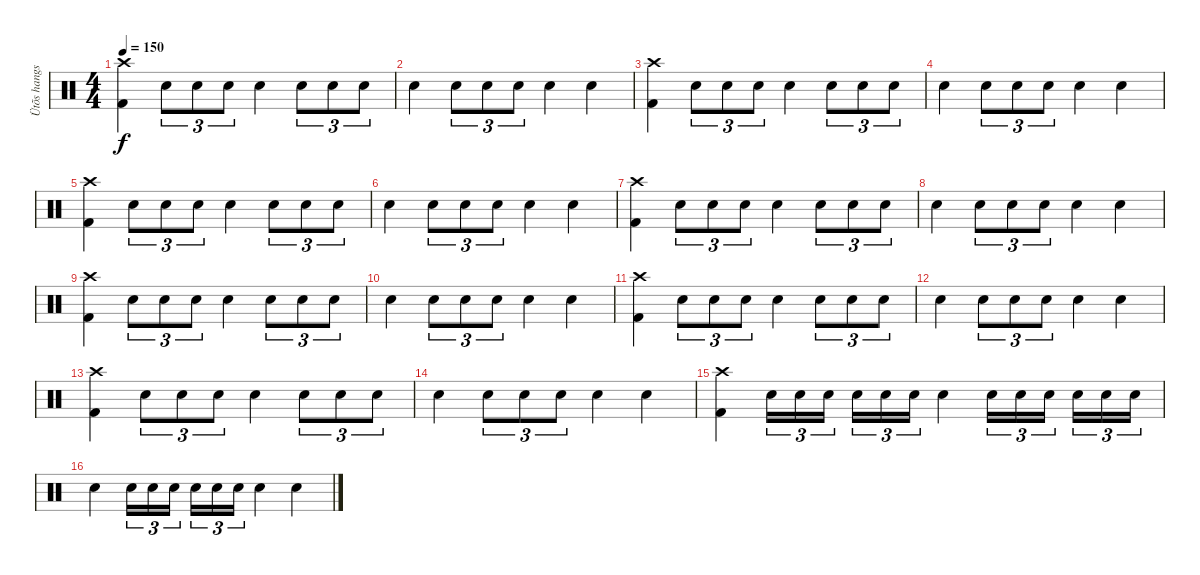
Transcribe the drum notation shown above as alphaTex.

\track ("Ütõs hangszer" "Ütõs hangs") {instrument percussion}
\staff {score}
\articulation defaults
\ts (4 4)
\tempo 150
\clef neutral
\ks c
("Crash high (hit)" "Kick (hit) 2").4{dy f} "Electric Snare (hit)".8{tu (3 2)} "Electric Snare (hit)".8{tu (3 2)} "Electric Snare (hit)".8{tu (3 2)} "Electric Snare (hit)".4 "Electric Snare (hit)".8{tu (3 2)} "Electric Snare (hit)".8{tu (3 2)} "Electric Snare (hit)".8{tu (3 2)} |
"Electric Snare (hit)".4 "Electric Snare (hit)".8{tu (3 2)} "Electric Snare (hit)".8{tu (3 2)} "Electric Snare (hit)".8{tu (3 2)} "Electric Snare (hit)".4 "Electric Snare (hit)".4 |
("Crash high (hit)" "Kick (hit) 2").4 "Electric Snare (hit)".8{tu (3 2)} "Electric Snare (hit)".8{tu (3 2)} "Electric Snare (hit)".8{tu (3 2)} "Electric Snare (hit)".4 "Electric Snare (hit)".8{tu (3 2)} "Electric Snare (hit)".8{tu (3 2)} "Electric Snare (hit)".8{tu (3 2)} |
"Electric Snare (hit)".4 "Electric Snare (hit)".8{tu (3 2)} "Electric Snare (hit)".8{tu (3 2)} "Electric Snare (hit)".8{tu (3 2)} "Electric Snare (hit)".4 "Electric Snare (hit)".4 |
("Crash high (hit)" "Kick (hit) 2").4 "Electric Snare (hit)".8{tu (3 2)} "Electric Snare (hit)".8{tu (3 2)} "Electric Snare (hit)".8{tu (3 2)} "Electric Snare (hit)".4 "Electric Snare (hit)".8{tu (3 2)} "Electric Snare (hit)".8{tu (3 2)} "Electric Snare (hit)".8{tu (3 2)} |
"Electric Snare (hit)".4 "Electric Snare (hit)".8{tu (3 2)} "Electric Snare (hit)".8{tu (3 2)} "Electric Snare (hit)".8{tu (3 2)} "Electric Snare (hit)".4 "Electric Snare (hit)".4 |
("Crash high (hit)" "Kick (hit) 2").4 "Electric Snare (hit)".8{tu (3 2)} "Electric Snare (hit)".8{tu (3 2)} "Electric Snare (hit)".8{tu (3 2)} "Electric Snare (hit)".4 "Electric Snare (hit)".8{tu (3 2)} "Electric Snare (hit)".8{tu (3 2)} "Electric Snare (hit)".8{tu (3 2)} |
"Electric Snare (hit)".4 "Electric Snare (hit)".8{tu (3 2)} "Electric Snare (hit)".8{tu (3 2)} "Electric Snare (hit)".8{tu (3 2)} "Electric Snare (hit)".4 "Electric Snare (hit)".4 |
("Crash high (hit)" "Kick (hit) 2").4 "Electric Snare (hit)".8{tu (3 2)} "Electric Snare (hit)".8{tu (3 2)} "Electric Snare (hit)".8{tu (3 2)} "Electric Snare (hit)".4 "Electric Snare (hit)".8{tu (3 2)} "Electric Snare (hit)".8{tu (3 2)} "Electric Snare (hit)".8{tu (3 2)} |
"Electric Snare (hit)".4 "Electric Snare (hit)".8{tu (3 2)} "Electric Snare (hit)".8{tu (3 2)} "Electric Snare (hit)".8{tu (3 2)} "Electric Snare (hit)".4 "Electric Snare (hit)".4 |
("Crash high (hit)" "Kick (hit) 2").4 "Electric Snare (hit)".8{tu (3 2)} "Electric Snare (hit)".8{tu (3 2)} "Electric Snare (hit)".8{tu (3 2)} "Electric Snare (hit)".4 "Electric Snare (hit)".8{tu (3 2)} "Electric Snare (hit)".8{tu (3 2)} "Electric Snare (hit)".8{tu (3 2)} |
"Electric Snare (hit)".4 "Electric Snare (hit)".8{tu (3 2)} "Electric Snare (hit)".8{tu (3 2)} "Electric Snare (hit)".8{tu (3 2)} "Electric Snare (hit)".4 "Electric Snare (hit)".4 |
("Crash high (hit)" "Kick (hit) 2").4 "Electric Snare (hit)".8{tu (3 2)} "Electric Snare (hit)".8{tu (3 2)} "Electric Snare (hit)".8{tu (3 2)} "Electric Snare (hit)".4 "Electric Snare (hit)".8{tu (3 2)} "Electric Snare (hit)".8{tu (3 2)} "Electric Snare (hit)".8{tu (3 2)} |
"Electric Snare (hit)".4 "Electric Snare (hit)".8{tu (3 2)} "Electric Snare (hit)".8{tu (3 2)} "Electric Snare (hit)".8{tu (3 2)} "Electric Snare (hit)".4 "Electric Snare (hit)".4 |
("Crash high (hit)" "Kick (hit) 2").4 "Electric Snare (hit)".16{tu (3 2)} "Electric Snare (hit)".16{tu (3 2)} "Electric Snare (hit)".16{tu (3 2) beam splitsecondary} "Electric Snare (hit)".16{tu (3 2)} "Electric Snare (hit)".16{tu (3 2)} "Electric Snare (hit)".16{tu (3 2)} "Electric Snare (hit)".4 "Electric Snare (hit)".16{tu (3 2)} "Electric Snare (hit)".16{tu (3 2)} "Electric Snare (hit)".16{tu (3 2) beam splitsecondary} "Electric Snare (hit)".16{tu (3 2)} "Electric Snare (hit)".16{tu (3 2)} "Electric Snare (hit)".16{tu (3 2)} |
"Electric Snare (hit)".4 "Electric Snare (hit)".16{tu (3 2)} "Electric Snare (hit)".16{tu (3 2)} "Electric Snare (hit)".16{tu (3 2) beam splitsecondary} "Electric Snare (hit)".16{tu (3 2)} "Electric Snare (hit)".16{tu (3 2)} "Electric Snare (hit)".16{tu (3 2)} "Electric Snare (hit)".4 "Electric Snare (hit)".4
